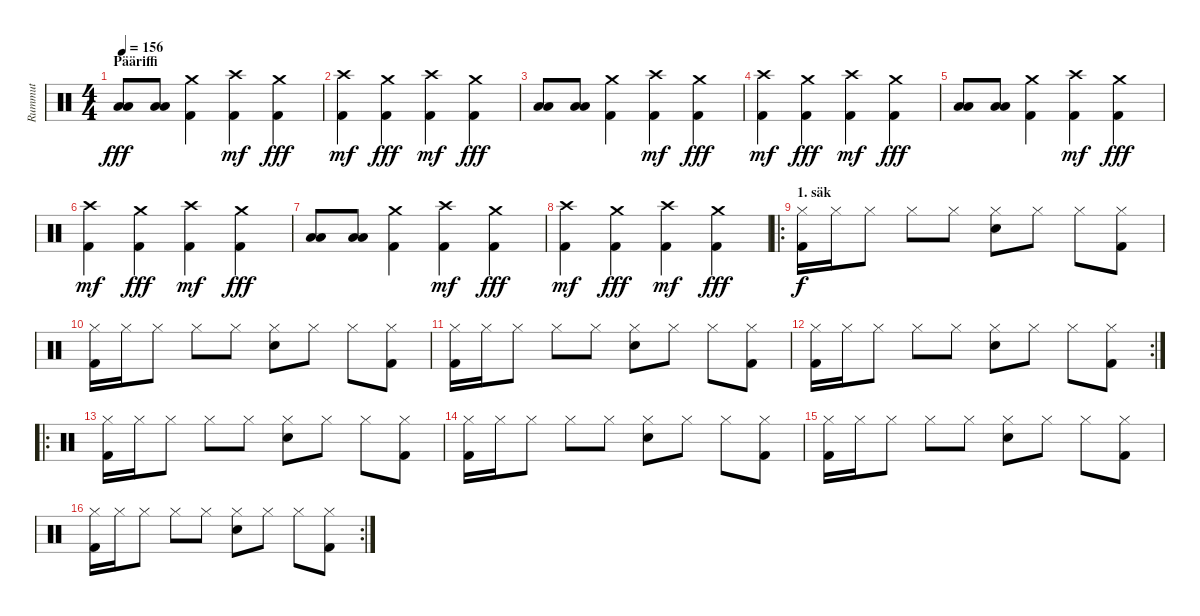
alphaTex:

\track ("Rummut" "Rummut") {instrument percussion}
\staff {score}
\articulation defaults
\ts (4 4)
\section ("" "Pääriffi")
\tempo 156
\clef neutral
\ks c
("Low Floor Tom (hit)" "Low Floor Tom (hit)").8{dy fff} ("Low Floor Tom (hit)" "Low Floor Tom (hit)").8 ("Kick (hit) 2" "Crash medium (hit)").4 ("Kick (hit) 2" "Crash high (hit)").4{dy mf} ("Kick (hit) 2" "Crash medium (hit)").4{dy fff} |
("Kick (hit) 2" "Crash high (hit)").4{dy mf} ("Kick (hit) 2" "Crash medium (hit)").4{dy fff} ("Kick (hit) 2" "Crash high (hit)").4{dy mf} ("Kick (hit) 2" "Crash medium (hit)").4{dy fff} |
("Low Floor Tom (hit)" "Low Floor Tom (hit)").8 ("Low Floor Tom (hit)" "Low Floor Tom (hit)").8 ("Kick (hit) 2" "Crash medium (hit)").4 ("Kick (hit) 2" "Crash high (hit)").4{dy mf} ("Kick (hit) 2" "Crash medium (hit)").4{dy fff} |
("Kick (hit) 2" "Crash high (hit)").4{dy mf} ("Kick (hit) 2" "Crash medium (hit)").4{dy fff} ("Kick (hit) 2" "Crash high (hit)").4{dy mf} ("Kick (hit) 2" "Crash medium (hit)").4{dy fff} |
("Low Floor Tom (hit)" "Low Floor Tom (hit)").8 ("Low Floor Tom (hit)" "Low Floor Tom (hit)").8 ("Kick (hit) 2" "Crash medium (hit)").4 ("Kick (hit) 2" "Crash high (hit)").4{dy mf} ("Kick (hit) 2" "Crash medium (hit)").4{dy fff} |
("Kick (hit) 2" "Crash high (hit)").4{dy mf} ("Kick (hit) 2" "Crash medium (hit)").4{dy fff} ("Kick (hit) 2" "Crash high (hit)").4{dy mf} ("Kick (hit) 2" "Crash medium (hit)").4{dy fff} |
("Low Floor Tom (hit)" "Low Floor Tom (hit)").8 ("Low Floor Tom (hit)" "Low Floor Tom (hit)").8 ("Kick (hit) 2" "Crash medium (hit)").4 ("Kick (hit) 2" "Crash high (hit)").4{dy mf} ("Kick (hit) 2" "Crash medium (hit)").4{dy fff} |
("Kick (hit) 2" "Crash high (hit)").4{dy mf} ("Kick (hit) 2" "Crash medium (hit)").4{dy fff} ("Kick (hit) 2" "Crash high (hit)").4{dy mf} ("Kick (hit) 2" "Crash medium (hit)").4{dy fff} |
\ro
\section ("" "1. säk")
("Kick (hit) 2" "Hi-Hat (closed)").16{dy f} "Hi-Hat (closed)".16 "Hi-Hat (closed)".8 "Hi-Hat (closed)".8 "Hi-Hat (closed)".8 ("Hi-Hat (closed)" "Snare (hit) 2").8 "Hi-Hat (closed)".8 "Hi-Hat (closed)".8 ("Kick (hit) 2" "Hi-Hat (closed)").8 |
("Kick (hit) 2" "Hi-Hat (closed)").16 "Hi-Hat (closed)".16 "Hi-Hat (closed)".8 "Hi-Hat (closed)".8 "Hi-Hat (closed)".8 ("Hi-Hat (closed)" "Snare (hit) 2").8 "Hi-Hat (closed)".8 "Hi-Hat (closed)".8 ("Kick (hit) 2" "Hi-Hat (closed)").8 |
("Kick (hit) 2" "Hi-Hat (closed)").16 "Hi-Hat (closed)".16 "Hi-Hat (closed)".8 "Hi-Hat (closed)".8 "Hi-Hat (closed)".8 ("Hi-Hat (closed)" "Snare (hit) 2").8 "Hi-Hat (closed)".8 "Hi-Hat (closed)".8 ("Kick (hit) 2" "Hi-Hat (closed)").8 |
\rc 2
("Kick (hit) 2" "Hi-Hat (closed)").16 "Hi-Hat (closed)".16 "Hi-Hat (closed)".8 "Hi-Hat (closed)".8 "Hi-Hat (closed)".8 ("Hi-Hat (closed)" "Snare (hit) 2").8 "Hi-Hat (closed)".8 "Hi-Hat (closed)".8 ("Kick (hit) 2" "Hi-Hat (closed)").8 |
\ro
("Kick (hit) 2" "Hi-Hat (closed)").16 "Hi-Hat (closed)".16 "Hi-Hat (closed)".8 "Hi-Hat (closed)".8 "Hi-Hat (closed)".8 ("Hi-Hat (closed)" "Snare (hit) 2").8 "Hi-Hat (closed)".8 "Hi-Hat (closed)".8 ("Kick (hit) 2" "Hi-Hat (closed)").8 |
("Kick (hit) 2" "Hi-Hat (closed)").16 "Hi-Hat (closed)".16 "Hi-Hat (closed)".8 "Hi-Hat (closed)".8 "Hi-Hat (closed)".8 ("Hi-Hat (closed)" "Snare (hit) 2").8 "Hi-Hat (closed)".8 "Hi-Hat (closed)".8 ("Kick (hit) 2" "Hi-Hat (closed)").8 |
("Kick (hit) 2" "Hi-Hat (closed)").16 "Hi-Hat (closed)".16 "Hi-Hat (closed)".8 "Hi-Hat (closed)".8 "Hi-Hat (closed)".8 ("Hi-Hat (closed)" "Snare (hit) 2").8 "Hi-Hat (closed)".8 "Hi-Hat (closed)".8 ("Kick (hit) 2" "Hi-Hat (closed)").8 |
\rc 2
("Kick (hit) 2" "Hi-Hat (closed)").16 "Hi-Hat (closed)".16 "Hi-Hat (closed)".8 "Hi-Hat (closed)".8 "Hi-Hat (closed)".8 ("Hi-Hat (closed)" "Snare (hit) 2").8 "Hi-Hat (closed)".8 "Hi-Hat (closed)".8 ("Kick (hit) 2" "Hi-Hat (closed)").8
